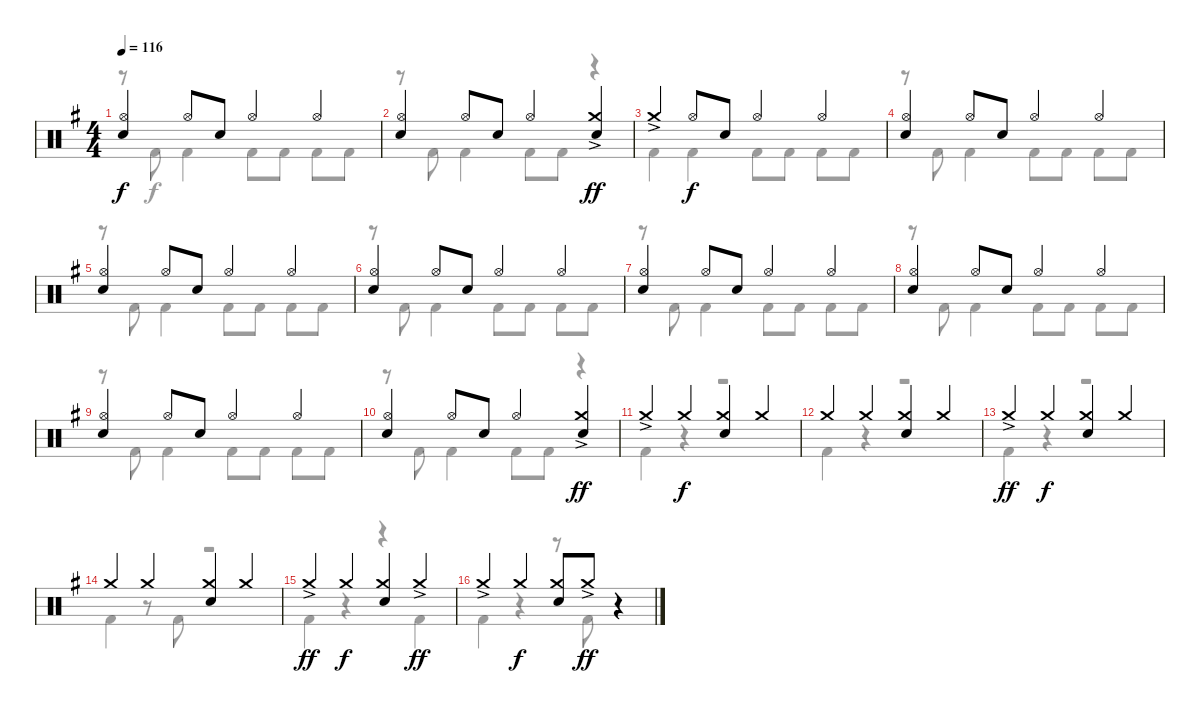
\track "" {instrument percussion}
\staff {score}
\articulation defaults
\voice
\ts (4 4)
\tempo 116
\clef neutral
\ks g
("Electric Snare (hit)" "Hi-Hat (open)").4{dy f} "Hi-Hat (open)".8 "Electric Snare (hit)".8 "Hi-Hat (open)".4 "Hi-Hat (open)".4 |
("Electric Snare (hit)" "Hi-Hat (open)").4 "Hi-Hat (open)".8 "Electric Snare (hit)".8 "Hi-Hat (open)".4 ("Electric Snare (hit)" "Crash medium (hit)"{ac}).4{dy ff} |
"Crash medium (hit)"{ac}.4 "Hi-Hat (open)".8{dy f} "Electric Snare (hit)".8 "Hi-Hat (open)".4 "Hi-Hat (open)".4 |
("Electric Snare (hit)" "Hi-Hat (open)").4 "Hi-Hat (open)".8 "Electric Snare (hit)".8 "Hi-Hat (open)".4 "Hi-Hat (open)".4 |
("Electric Snare (hit)" "Hi-Hat (open)").4 "Hi-Hat (open)".8 "Electric Snare (hit)".8 "Hi-Hat (open)".4 "Hi-Hat (open)".4 |
("Electric Snare (hit)" "Hi-Hat (open)").4 "Hi-Hat (open)".8 "Electric Snare (hit)".8 "Hi-Hat (open)".4 "Hi-Hat (open)".4 |
("Electric Snare (hit)" "Hi-Hat (open)").4 "Hi-Hat (open)".8 "Electric Snare (hit)".8 "Hi-Hat (open)".4 "Hi-Hat (open)".4 |
("Electric Snare (hit)" "Hi-Hat (open)").4 "Hi-Hat (open)".8 "Electric Snare (hit)".8 "Hi-Hat (open)".4 "Hi-Hat (open)".4 |
("Electric Snare (hit)" "Hi-Hat (open)").4 "Hi-Hat (open)".8 "Electric Snare (hit)".8 "Hi-Hat (open)".4 "Hi-Hat (open)".4 |
("Electric Snare (hit)" "Hi-Hat (open)").4 "Hi-Hat (open)".8 "Electric Snare (hit)".8 "Hi-Hat (open)".4 ("Electric Snare (hit)" "Crash medium (hit)"{ac}).4{dy ff} |
"Crash medium (hit)"{ac}.4 "Crash medium (hit)".4{dy f} ("Electric Snare (hit)" "Crash medium (hit)").4 "Crash medium (hit)".4 |
"Crash medium (hit)".4 "Crash medium (hit)".4 ("Electric Snare (hit)" "Crash medium (hit)").4 "Crash medium (hit)".4 |
"Crash medium (hit)"{ac}.4{dy ff} "Crash medium (hit)".4{dy f} ("Electric Snare (hit)" "Crash medium (hit)").4 "Crash medium (hit)".4 |
"Crash medium (hit)".4 "Crash medium (hit)".4 ("Electric Snare (hit)" "Crash medium (hit)").4 "Crash medium (hit)".4 |
"Crash medium (hit)"{ac}.4{dy ff} "Crash medium (hit)".4{dy f} ("Electric Snare (hit)" "Crash medium (hit)").4 "Crash medium (hit)"{ac}.4{dy ff} |
"Crash medium (hit)"{ac}.4 "Crash medium (hit)".4{dy f} ("Electric Snare (hit)" "Crash medium (hit)").8 "Crash medium (hit)"{ac}.8{dy ff} r.4
\voice
\clef neutral
\ottava regular
\simile none
\ks g
r.8{dy f} "Kick (hit) 2".8 "Kick (hit) 2".4 "Kick (hit) 2".8 "Kick (hit) 2".8 "Kick (hit) 2".8 "Kick (hit) 2".8 |
r.8 "Kick (hit) 2".8 "Kick (hit) 2".4 "Kick (hit) 2".8 "Kick (hit) 2".8 r.4 |
"Kick (hit) 2".4 "Kick (hit) 2".4 "Kick (hit) 2".8 "Kick (hit) 2".8 "Kick (hit) 2".8 "Kick (hit) 2".8 |
r.8 "Kick (hit) 2".8 "Kick (hit) 2".4 "Kick (hit) 2".8 "Kick (hit) 2".8 "Kick (hit) 2".8 "Kick (hit) 2".8 |
r.8 "Kick (hit) 2".8 "Kick (hit) 2".4 "Kick (hit) 2".8 "Kick (hit) 2".8 "Kick (hit) 2".8 "Kick (hit) 2".8 |
r.8 "Kick (hit) 2".8 "Kick (hit) 2".4 "Kick (hit) 2".8 "Kick (hit) 2".8 "Kick (hit) 2".8 "Kick (hit) 2".8 |
r.8 "Kick (hit) 2".8 "Kick (hit) 2".4 "Kick (hit) 2".8 "Kick (hit) 2".8 "Kick (hit) 2".8 "Kick (hit) 2".8 |
r.8 "Kick (hit) 2".8 "Kick (hit) 2".4 "Kick (hit) 2".8 "Kick (hit) 2".8 "Kick (hit) 2".8 "Kick (hit) 2".8 |
r.8 "Kick (hit) 2".8 "Kick (hit) 2".4 "Kick (hit) 2".8 "Kick (hit) 2".8 "Kick (hit) 2".8 "Kick (hit) 2".8 |
r.8 "Kick (hit) 2".8 "Kick (hit) 2".4 "Kick (hit) 2".8 "Kick (hit) 2".8 r.4 |
"Kick (hit) 2".4 r.4 r.2 |
"Kick (hit) 2".4 r.4 r.2 |
"Kick (hit) 2".4 r.4 r.2 |
"Kick (hit) 2".4 r.8 "Kick (hit) 2".8 r.2 |
"Kick (hit) 2".4 r.4 r.4 "Kick (hit) 2".4 |
"Kick (hit) 2".4 r.4 r.8 "Kick (hit) 2".8 r.4
